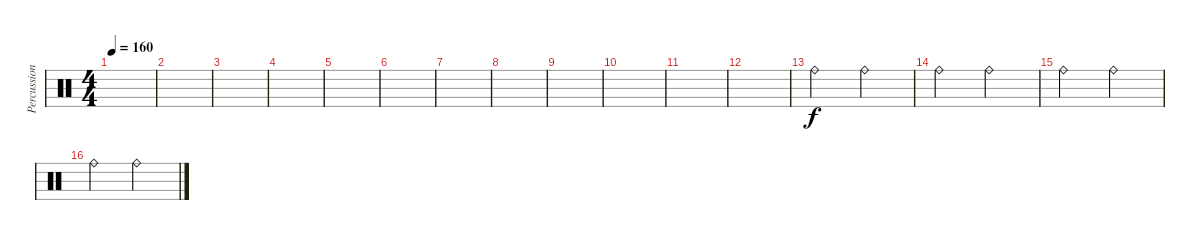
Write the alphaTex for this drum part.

\track ("Percussion" "Percussion") {instrument percussion}
\staff {score}
\articulation defaults
\ts (4 4)
\tempo 160
\clef neutral
\ks c
|
|
|
|
|
|
|
|
|
|
|
|
"Ride (bell)".2 "Ride (bell)".2 |
"Ride (bell)".2 "Ride (bell)".2 |
"Ride (bell)".2 "Ride (bell)".2 |
"Ride (bell)".2 "Ride (bell)".2
